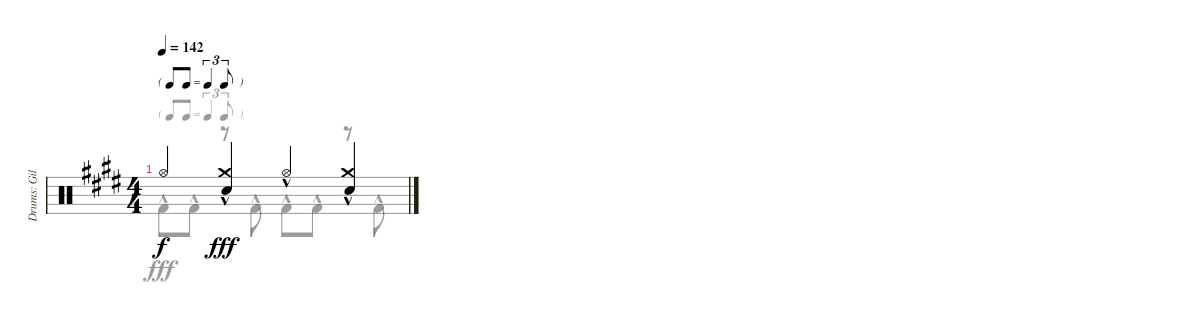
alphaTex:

\track ("Drums: Gil" "Drums: Gil") {instrument percussion}
\staff {score}
\articulation defaults
\voice
\ts (4 4)
\tf triplet8th
\tempo 142
\clef neutral
\ks e "Hi-Hat (open)".4{dy f beam merge}
("Crash medium (hit)"{hac} "Snare (hit) 2"{hac}).4{dy fff} "Hi-Hat (open)"{hac}.4{beam merge} ("Crash medium (hit)"{hac} "Snare (hit) 2"{hac}).4
\voice
\clef neutral
\ottava regular
\simile none
\ks e "Kick (hit) 2"{hac}.8{dy fff} "Kick (hit) 2"{hac}.8
r.8 "Kick (hit) 2"{hac}.8 "Kick (hit) 2"{hac}.8 "Kick (hit) 2"{hac}.8 r.8 "Kick (hit) 2"{hac}.8
